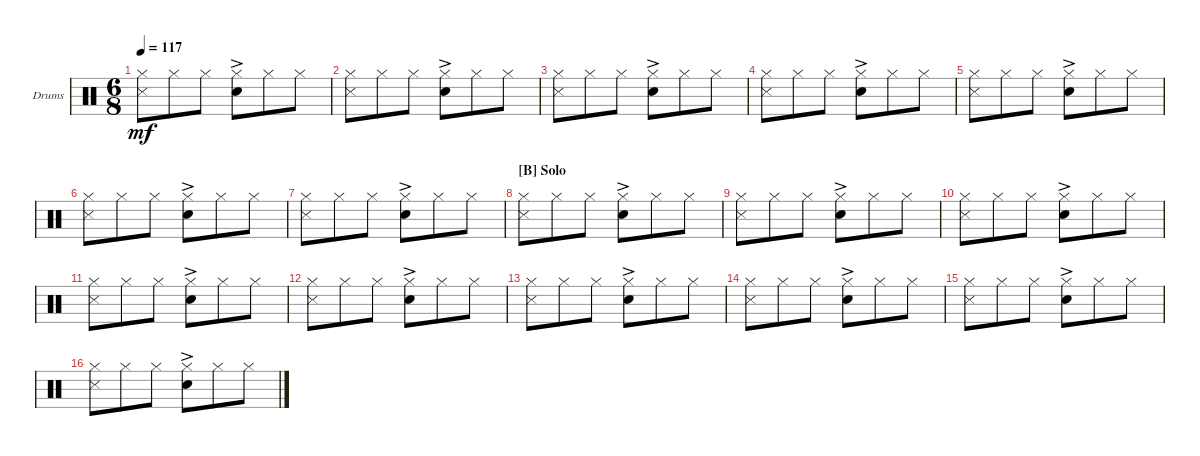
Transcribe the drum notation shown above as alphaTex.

\defaultSystemsLayout 4
\bracketExtendMode groupsimilarinstruments
\firstSystemTrackNameOrientation horizontal
\otherSystemsTrackNameOrientation horizontal
\track ("Drumkit" "Drums") {instrument percussion}
\staff {score}
\articulation defaults
\ts (6 8)
\tempo 117
\clef neutral
\ks c
("Hi-Hat (closed)" "Snare (side stick) 3").8{dy mf} "Hi-Hat (closed)".8 "Hi-Hat (closed)".8 ("Hi-Hat (closed)" "Snare (hit) 2"{ac}).8 "Hi-Hat (closed)".8 "Hi-Hat (closed)".8 |
("Hi-Hat (closed)" "Snare (side stick) 3").8 "Hi-Hat (closed)".8 "Hi-Hat (closed)".8 ("Hi-Hat (closed)" "Snare (hit) 2"{ac}).8 "Hi-Hat (closed)".8 "Hi-Hat (closed)".8 |
("Hi-Hat (closed)" "Snare (side stick) 3").8 "Hi-Hat (closed)".8 "Hi-Hat (closed)".8 ("Hi-Hat (closed)" "Snare (hit) 2"{ac}).8 "Hi-Hat (closed)".8 "Hi-Hat (closed)".8 |
("Hi-Hat (closed)" "Snare (side stick) 3").8 "Hi-Hat (closed)".8 "Hi-Hat (closed)".8 ("Hi-Hat (closed)" "Snare (hit) 2"{ac}).8 "Hi-Hat (closed)".8 "Hi-Hat (closed)".8 |
("Hi-Hat (closed)" "Snare (side stick) 3").8 "Hi-Hat (closed)".8 "Hi-Hat (closed)".8 ("Hi-Hat (closed)" "Snare (hit) 2"{ac}).8 "Hi-Hat (closed)".8 "Hi-Hat (closed)".8 |
("Hi-Hat (closed)" "Snare (side stick) 3").8 "Hi-Hat (closed)".8 "Hi-Hat (closed)".8 ("Hi-Hat (closed)" "Snare (hit) 2"{ac}).8 "Hi-Hat (closed)".8 "Hi-Hat (closed)".8 |
("Hi-Hat (closed)" "Snare (side stick) 3").8 "Hi-Hat (closed)".8 "Hi-Hat (closed)".8 ("Hi-Hat (closed)" "Snare (hit) 2"{ac}).8 "Hi-Hat (closed)".8 "Hi-Hat (closed)".8 |
\section ("B" "Solo")
("Hi-Hat (closed)" "Snare (side stick) 3").8 "Hi-Hat (closed)".8 "Hi-Hat (closed)".8 ("Hi-Hat (closed)" "Snare (hit) 2"{ac}).8 "Hi-Hat (closed)".8 "Hi-Hat (closed)".8 |
("Hi-Hat (closed)" "Snare (side stick) 3").8 "Hi-Hat (closed)".8 "Hi-Hat (closed)".8 ("Hi-Hat (closed)" "Snare (hit) 2"{ac}).8 "Hi-Hat (closed)".8 "Hi-Hat (closed)".8 |
("Hi-Hat (closed)" "Snare (side stick) 3").8 "Hi-Hat (closed)".8 "Hi-Hat (closed)".8 ("Hi-Hat (closed)" "Snare (hit) 2"{ac}).8 "Hi-Hat (closed)".8 "Hi-Hat (closed)".8 |
("Hi-Hat (closed)" "Snare (side stick) 3").8 "Hi-Hat (closed)".8 "Hi-Hat (closed)".8 ("Hi-Hat (closed)" "Snare (hit) 2"{ac}).8 "Hi-Hat (closed)".8 "Hi-Hat (closed)".8 |
("Hi-Hat (closed)" "Snare (side stick) 3").8 "Hi-Hat (closed)".8 "Hi-Hat (closed)".8 ("Hi-Hat (closed)" "Snare (hit) 2"{ac}).8 "Hi-Hat (closed)".8 "Hi-Hat (closed)".8 |
("Hi-Hat (closed)" "Snare (side stick) 3").8 "Hi-Hat (closed)".8 "Hi-Hat (closed)".8 ("Hi-Hat (closed)" "Snare (hit) 2"{ac}).8 "Hi-Hat (closed)".8 "Hi-Hat (closed)".8 |
("Hi-Hat (closed)" "Snare (side stick) 3").8 "Hi-Hat (closed)".8 "Hi-Hat (closed)".8 ("Hi-Hat (closed)" "Snare (hit) 2"{ac}).8 "Hi-Hat (closed)".8 "Hi-Hat (closed)".8 |
("Hi-Hat (closed)" "Snare (side stick) 3").8 "Hi-Hat (closed)".8 "Hi-Hat (closed)".8 ("Hi-Hat (closed)" "Snare (hit) 2"{ac}).8 "Hi-Hat (closed)".8 "Hi-Hat (closed)".8 |
("Hi-Hat (closed)" "Snare (side stick) 3").8 "Hi-Hat (closed)".8 "Hi-Hat (closed)".8 ("Hi-Hat (closed)" "Snare (hit) 2"{ac}).8 "Hi-Hat (closed)".8 "Hi-Hat (closed)".8
